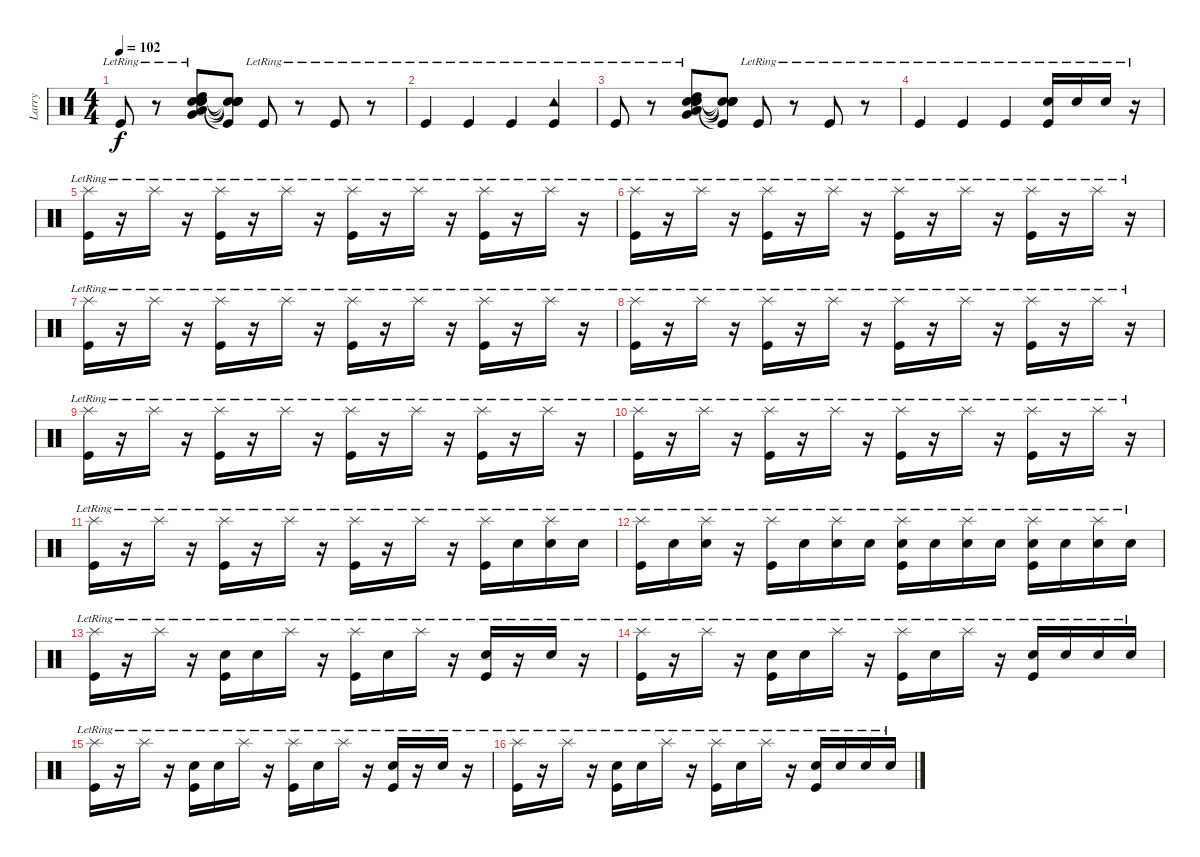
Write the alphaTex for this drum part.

\track ("Larry" "Larry") {instrument percussion}
\staff {score}
\articulation defaults
\ts (4 4)
\tempo 102
\clef neutral
\ks c "Kick (hit)"{lr}.8{dy f}
r.8 ("Very Low Tom (hit)"{lr} "Low Floor Tom (hit)"{lr} "Snare (hit) 2"{lr} "High Tom (hit)"{lr} "Electric Snare (hit)"{lr} "Snare (hit) 2"{lr}).8{volume 16} ("Snare (hit)"{t} "Snare (hit)"{t} "Kick (hit)"{t} "Snare (hit)"{t} "Snare (hit)"{t}).8 "Kick (hit)"{lr}.8{volume 8} r.8 "Kick (hit)"{lr}.8 r.8 |
"Kick (hit)"{lr}.4 "Kick (hit)"{lr}.4 "Kick (hit)"{lr}.4 ("Tambourine (hit)"{lr} "Kick (hit)"{lr}).4 |
"Kick (hit)"{lr}.8 r.8 ("Very Low Tom (hit)"{lr} "Low Floor Tom (hit)"{lr} "Snare (hit) 2"{lr} "High Tom (hit)"{lr} "Electric Snare (hit)"{lr} "Snare (hit) 2"{lr}).8{volume 16} ("Snare (hit)"{t} "Snare (hit)"{t} "Kick (hit)"{t} "Snare (hit)"{t} "Snare (hit)"{t}).8 "Kick (hit)"{lr}.8{volume 8} r.8 "Kick (hit)"{lr}.8 r.8 |
"Kick (hit)"{lr}.4 "Kick (hit)"{lr}.4 "Kick (hit)"{lr}.4 ("Snare (hit) 2"{lr} "Kick (hit)"{lr}).16 "Snare (hit) 2"{lr}.16 "Snare (hit) 2"{lr}.16 r.16 |
("Splash (hit)"{lr} "Kick (hit)"{lr}).16 r.16 "Splash (hit)"{lr}.16 r.16 ("Splash (hit)"{lr} "Kick (hit)"{lr}).16 r.16 "Splash (hit)"{lr}.16 r.16 ("Splash (hit)"{lr} "Kick (hit)"{lr}).16 r.16 "Splash (hit)"{lr}.16 r.16 ("Splash (hit)"{lr} "Kick (hit)"{lr}).16 r.16 "Splash (hit)"{lr}.16 r.16 |
("Splash (hit)"{lr} "Kick (hit)"{lr}).16 r.16 "Splash (hit)"{lr}.16 r.16 ("Splash (hit)"{lr} "Kick (hit)"{lr}).16 r.16 "Splash (hit)"{lr}.16 r.16 ("Splash (hit)"{lr} "Kick (hit)"{lr}).16 r.16 "Splash (hit)"{lr}.16 r.16 ("Splash (hit)"{lr} "Kick (hit)"{lr}).16 r.16 "Splash (hit)"{lr}.16 r.16 |
("Splash (hit)"{lr} "Kick (hit)"{lr}).16 r.16 "Splash (hit)"{lr}.16 r.16 ("Splash (hit)"{lr} "Kick (hit)"{lr}).16 r.16 "Splash (hit)"{lr}.16 r.16 ("Splash (hit)"{lr} "Kick (hit)"{lr}).16 r.16 "Splash (hit)"{lr}.16 r.16 ("Splash (hit)"{lr} "Kick (hit)"{lr}).16 r.16 "Splash (hit)"{lr}.16 r.16 |
("Splash (hit)"{lr} "Kick (hit)"{lr}).16 r.16 "Splash (hit)"{lr}.16 r.16 ("Splash (hit)"{lr} "Kick (hit)"{lr}).16 r.16 "Splash (hit)"{lr}.16 r.16 ("Splash (hit)"{lr} "Kick (hit)"{lr}).16 r.16 "Splash (hit)"{lr}.16 r.16 ("Splash (hit)"{lr} "Kick (hit)"{lr}).16 r.16 "Splash (hit)"{lr}.16 r.16 |
("Splash (hit)"{lr} "Kick (hit)"{lr}).16 r.16 "Splash (hit)"{lr}.16 r.16 ("Splash (hit)"{lr} "Kick (hit)"{lr}).16 r.16 "Splash (hit)"{lr}.16 r.16 ("Splash (hit)"{lr} "Kick (hit)"{lr}).16 r.16 "Splash (hit)"{lr}.16 r.16 ("Splash (hit)"{lr} "Kick (hit)"{lr}).16 r.16 "Splash (hit)"{lr}.16 r.16 |
("Splash (hit)"{lr} "Kick (hit)"{lr}).16 r.16 "Splash (hit)"{lr}.16 r.16 ("Splash (hit)"{lr} "Kick (hit)"{lr}).16 r.16 "Splash (hit)"{lr}.16 r.16 ("Splash (hit)"{lr} "Kick (hit)"{lr}).16 r.16 "Splash (hit)"{lr}.16 r.16 ("Splash (hit)"{lr} "Kick (hit)"{lr}).16 r.16 "Splash (hit)"{lr}.16 r.16 |
("Splash (hit)"{lr} "Kick (hit)"{lr}).16 r.16 "Splash (hit)"{lr}.16 r.16 ("Splash (hit)"{lr} "Kick (hit)"{lr}).16 r.16 "Splash (hit)"{lr}.16 r.16 ("Splash (hit)"{lr} "Kick (hit)"{lr}).16 r.16 "Splash (hit)"{lr}.16 r.16 ("Splash (hit)"{lr} "Kick (hit)"{lr}).16 "Snare (hit) 2"{lr}.16 ("Snare (hit) 2"{lr} "Splash (hit)"{lr}).16 "Snare (hit) 2"{lr}.16 |
("Splash (hit)"{lr} "Kick (hit)"{lr}).16 "Snare (hit) 2"{lr}.16 ("Snare (hit) 2"{lr} "Splash (hit)"{lr}).16 r.16 ("Splash (hit)"{lr} "Kick (hit)"{lr}).16 "Snare (hit) 2"{lr}.16 ("Snare (hit) 2"{lr} "Splash (hit)"{lr}).16 "Snare (hit) 2"{lr}.16 ("Snare (hit) 2"{lr} "Splash (hit)"{lr} "Kick (hit)"{lr}).16 "Snare (hit) 2"{lr}.16 ("Snare (hit) 2"{lr} "Splash (hit)"{lr}).16 "Snare (hit) 2"{lr}.16 ("Snare (hit) 2"{lr} "Splash (hit)"{lr} "Kick (hit)"{lr}).16 "Snare (hit) 2"{lr}.16 ("Snare (hit) 2"{lr} "Splash (hit)"{lr}).16 "Snare (hit) 2"{lr}.16 |
("Splash (hit)"{lr} "Kick (hit)"{lr}).16 r.16 "Splash (hit)"{lr}.16 r.16 ("Snare (hit) 2"{lr} "Kick (hit)"{lr}).16 "Snare (hit) 2"{lr}.16 "Splash (hit)"{lr}.16 r.16 ("Splash (hit)"{lr} "Kick (hit)"{lr}).16 "Snare (hit) 2"{lr}.16 "Splash (hit)"{lr}.16 r.16 ("Snare (hit) 2"{lr} "Kick (hit)"{lr}).16 r.16 "Snare (hit) 2"{lr}.16 r.16 |
("Splash (hit)"{lr} "Kick (hit)"{lr}).16 r.16 "Splash (hit)"{lr}.16 r.16 ("Snare (hit) 2"{lr} "Kick (hit)"{lr}).16 "Snare (hit) 2"{lr}.16 "Splash (hit)"{lr}.16 r.16 ("Splash (hit)"{lr} "Kick (hit)"{lr}).16 "Snare (hit) 2"{lr}.16 "Splash (hit)"{lr}.16 r.16 ("Snare (hit) 2"{lr} "Kick (hit)"{lr}).16 "Snare (hit) 2"{lr}.16 "Snare (hit) 2"{lr}.16 "Snare (hit) 2"{lr}.16 |
("Splash (hit)"{lr} "Kick (hit)"{lr}).16 r.16 "Splash (hit)"{lr}.16 r.16 ("Snare (hit) 2"{lr} "Kick (hit)"{lr}).16 "Snare (hit) 2"{lr}.16 "Splash (hit)"{lr}.16 r.16 ("Splash (hit)"{lr} "Kick (hit)"{lr}).16 "Snare (hit) 2"{lr}.16 "Splash (hit)"{lr}.16 r.16 ("Snare (hit) 2"{lr} "Kick (hit)"{lr}).16 r.16 "Snare (hit) 2"{lr}.16 r.16 |
("Splash (hit)"{lr} "Kick (hit)"{lr}).16 r.16 "Splash (hit)"{lr}.16 r.16 ("Snare (hit) 2"{lr} "Kick (hit)"{lr}).16 "Snare (hit) 2"{lr}.16 "Splash (hit)"{lr}.16 r.16 ("Splash (hit)"{lr} "Kick (hit)"{lr}).16 "Snare (hit) 2"{lr}.16 "Splash (hit)"{lr}.16 r.16 ("Snare (hit) 2"{lr} "Kick (hit)"{lr}).16 "Snare (hit) 2"{lr}.16 "Snare (hit) 2"{lr}.16 "Snare (hit) 2"{lr}.16
